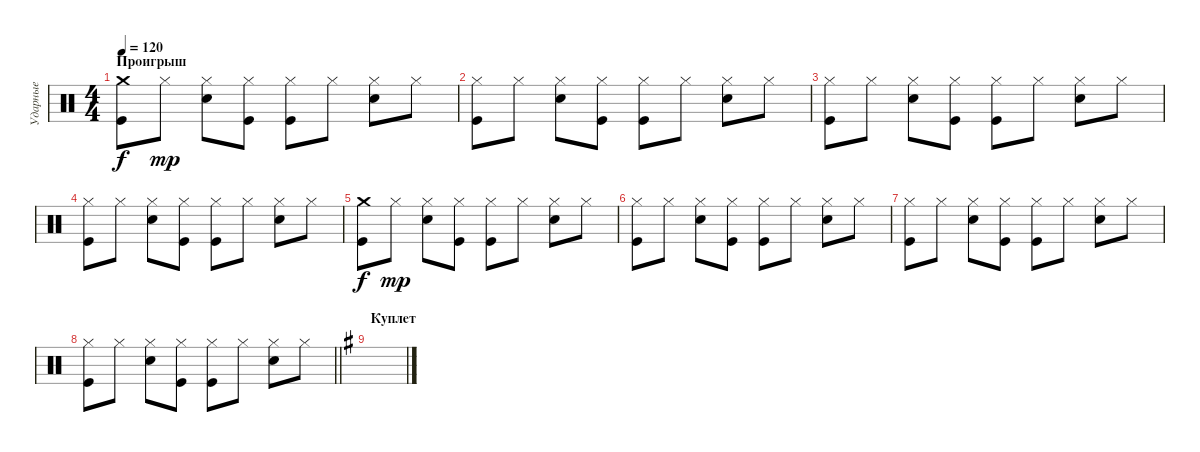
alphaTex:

\track ("Ударные" "Ударные") {instrument percussion}
\staff {score}
\articulation defaults
\ts (4 4)
\section ("" "Проигрыш")
\tempo 120
\clef neutral
\ks c
("Crash medium (hit)" "Kick (hit)").8{dy f} "Hi-Hat (closed)".8{dy mp} ("Hi-Hat (closed)" "Electric Snare (hit)").8 ("Hi-Hat (closed)" "Kick (hit)").8 ("Hi-Hat (closed)" "Kick (hit)").8 "Hi-Hat (closed)".8 ("Hi-Hat (closed)" "Electric Snare (hit)").8 "Hi-Hat (closed)".8 |
("Hi-Hat (closed)" "Kick (hit)").8 "Hi-Hat (closed)".8 ("Hi-Hat (closed)" "Electric Snare (hit)").8 ("Hi-Hat (closed)" "Kick (hit)").8 ("Hi-Hat (closed)" "Kick (hit)").8 "Hi-Hat (closed)".8 ("Hi-Hat (closed)" "Electric Snare (hit)").8 "Hi-Hat (closed)".8 |
("Hi-Hat (closed)" "Kick (hit)").8 "Hi-Hat (closed)".8 ("Hi-Hat (closed)" "Electric Snare (hit)").8 ("Hi-Hat (closed)" "Kick (hit)").8 ("Hi-Hat (closed)" "Kick (hit)").8 "Hi-Hat (closed)".8 ("Hi-Hat (closed)" "Electric Snare (hit)").8 "Hi-Hat (closed)".8 |
("Hi-Hat (closed)" "Kick (hit)").8 "Hi-Hat (closed)".8 ("Hi-Hat (closed)" "Electric Snare (hit)").8 ("Hi-Hat (closed)" "Kick (hit)").8 ("Hi-Hat (closed)" "Kick (hit)").8 "Hi-Hat (closed)".8 ("Hi-Hat (closed)" "Electric Snare (hit)").8 "Hi-Hat (closed)".8 |
("Crash medium (hit)" "Kick (hit)").8{dy f} "Hi-Hat (closed)".8{dy mp} ("Hi-Hat (closed)" "Electric Snare (hit)").8 ("Hi-Hat (closed)" "Kick (hit)").8 ("Hi-Hat (closed)" "Kick (hit)").8 "Hi-Hat (closed)".8 ("Hi-Hat (closed)" "Electric Snare (hit)").8 "Hi-Hat (closed)".8 |
("Hi-Hat (closed)" "Kick (hit)").8 "Hi-Hat (closed)".8 ("Hi-Hat (closed)" "Electric Snare (hit)").8 ("Hi-Hat (closed)" "Kick (hit)").8 ("Hi-Hat (closed)" "Kick (hit)").8 "Hi-Hat (closed)".8 ("Hi-Hat (closed)" "Electric Snare (hit)").8 "Hi-Hat (closed)".8 |
("Hi-Hat (closed)" "Kick (hit)").8 "Hi-Hat (closed)".8 ("Hi-Hat (closed)" "Electric Snare (hit)").8 ("Hi-Hat (closed)" "Kick (hit)").8 ("Hi-Hat (closed)" "Kick (hit)").8 "Hi-Hat (closed)".8 ("Hi-Hat (closed)" "Electric Snare (hit)").8 "Hi-Hat (closed)".8 |
\barLineRight lightlight
("Hi-Hat (closed)" "Kick (hit)").8 "Hi-Hat (closed)".8 ("Hi-Hat (closed)" "Electric Snare (hit)").8 ("Hi-Hat (closed)" "Kick (hit)").8 ("Hi-Hat (closed)" "Kick (hit)").8 "Hi-Hat (closed)".8 ("Hi-Hat (closed)" "Electric Snare (hit)").8 "Hi-Hat (closed)".8 |
\section ("" "Куплет")
\ks eminor
